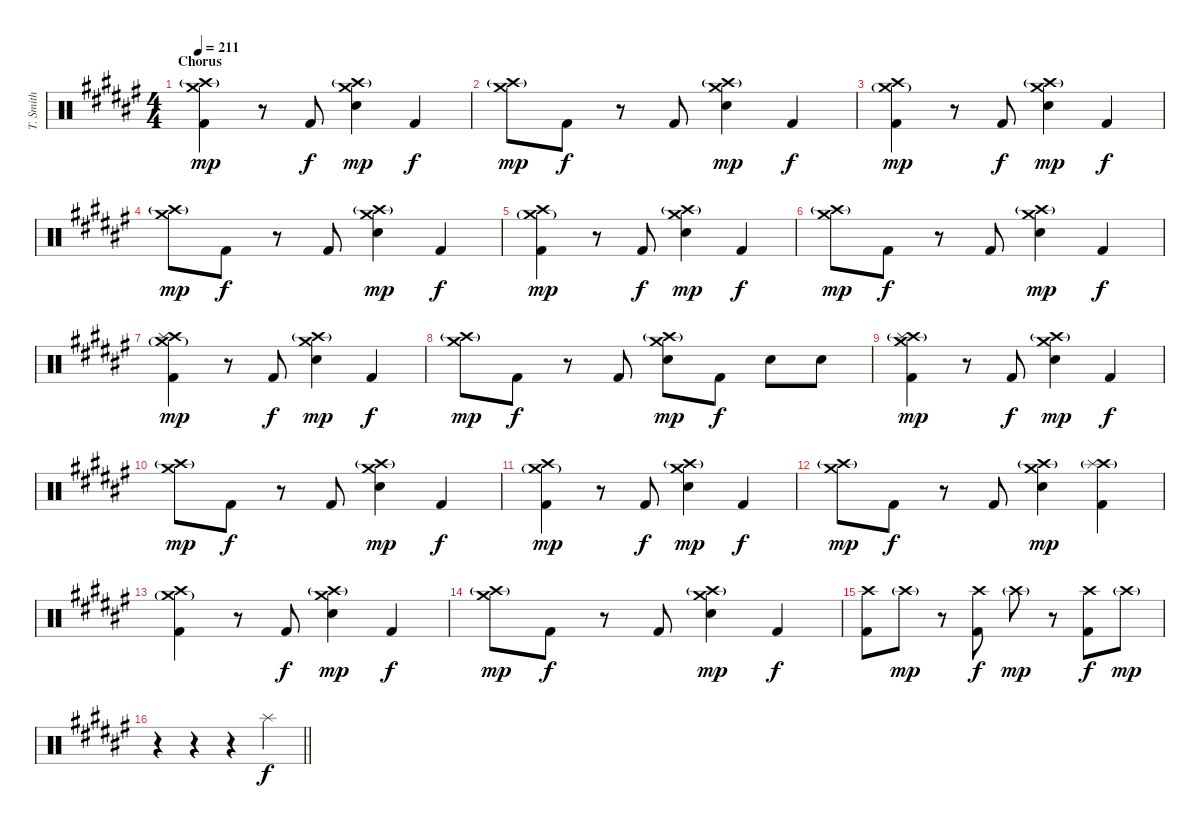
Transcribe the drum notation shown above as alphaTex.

\track ("T. Smith" "T. Smith") {instrument percussion}
\staff {score}
\articulation defaults
\ts (4 4)
\section ("" "Chorus")
\tempo 211
\clef neutral
\ks d#minor
("Crash medium (hit)" "Crash high (hit)"{g} "Kick (hit) 2").4{dy mp} r.8 "Kick (hit) 2".8{dy f} ("Crash medium (hit)" "Crash high (hit)"{g} "Electric Snare (hit)").4{dy mp} "Kick (hit) 2".4{dy f} |
("Crash medium (hit)" "Crash high (hit)"{g}).8{dy mp} "Kick (hit) 2".8{dy f} r.8 "Kick (hit) 2".8 ("Crash medium (hit)" "Crash high (hit)"{g} "Electric Snare (hit)").4{dy mp} "Kick (hit) 2".4{dy f} |
("Crash medium (hit)"{g} "Crash high (hit)" "Kick (hit) 2").4{dy mp} r.8 "Kick (hit) 2".8{dy f} ("Crash medium (hit)" "Crash high (hit)"{g} "Electric Snare (hit)").4{dy mp} "Kick (hit) 2".4{dy f} |
("Crash medium (hit)" "Crash high (hit)"{g}).8{dy mp} "Kick (hit) 2".8{dy f} r.8 "Kick (hit) 2".8 ("Crash medium (hit)" "Crash high (hit)"{g} "Electric Snare (hit)").4{dy mp} "Kick (hit) 2".4{dy f} |
("Crash medium (hit)"{g} "Crash high (hit)" "Kick (hit) 2").4{dy mp} r.8 "Kick (hit) 2".8{dy f} ("Crash medium (hit)" "Crash high (hit)"{g} "Electric Snare (hit)").4{dy mp} "Kick (hit) 2".4{dy f} |
("Crash medium (hit)" "Crash high (hit)"{g}).8{dy mp} "Kick (hit) 2".8{dy f} r.8 "Kick (hit) 2".8 ("Crash medium (hit)" "Crash high (hit)"{g} "Electric Snare (hit)").4{dy mp} "Kick (hit) 2".4{dy f} |
("Crash medium (hit)"{g} "Crash high (hit)" "Splash (hit)" "Kick (hit) 2").4{dy mp} r.8 "Kick (hit) 2".8{dy f} ("Crash medium (hit)" "Crash high (hit)"{g} "Electric Snare (hit)").4{dy mp} "Kick (hit) 2".4{dy f} |
("Crash medium (hit)" "Crash high (hit)"{g}).8{dy mp} "Kick (hit) 2".8{dy f} r.8 "Kick (hit) 2".8 ("Crash medium (hit)" "Crash high (hit)"{g} "Electric Snare (hit)").8{dy mp} "Kick (hit) 2".8{dy f} "Electric Snare (hit)".8 "Electric Snare (hit)".8 |
("Crash medium (hit)" "Crash high (hit)"{g} "Splash (hit)" "Kick (hit) 2").4{dy mp} r.8 "Kick (hit) 2".8{dy f} ("Crash medium (hit)" "Crash high (hit)"{g} "Electric Snare (hit)").4{dy mp} "Kick (hit) 2".4{dy f} |
("Crash medium (hit)" "Crash high (hit)"{g}).8{dy mp} "Kick (hit) 2".8{dy f} r.8 "Kick (hit) 2".8 ("Crash medium (hit)" "Crash high (hit)"{g} "Electric Snare (hit)").4{dy mp} "Kick (hit) 2".4{dy f} |
("Crash medium (hit)"{g} "Crash high (hit)" "Kick (hit) 2").4{dy mp} r.8 "Kick (hit) 2".8{dy f} ("Crash medium (hit)" "Crash high (hit)"{g} "Electric Snare (hit)").4{dy mp} "Kick (hit) 2".4{dy f} |
("Crash medium (hit)" "Crash high (hit)"{g}).8{dy mp} "Kick (hit) 2".8{dy f} r.8 "Kick (hit) 2".8 ("Crash medium (hit)" "Crash high (hit)"{g} "Electric Snare (hit)").4{dy mp} ("Crash high (hit)"{g} "Splash (hit)" "Kick (hit) 2").4 |
("Crash medium (hit)"{g} "Crash high (hit)" "Kick (hit) 2").4 r.8 "Kick (hit) 2".8{dy f} ("Crash medium (hit)" "Crash high (hit)"{g} "Electric Snare (hit)").4{dy mp} "Kick (hit) 2".4{dy f} |
("Crash medium (hit)" "Crash high (hit)"{g}).8{dy mp} "Kick (hit) 2".8{dy f} r.8 "Kick (hit) 2".8 ("Crash medium (hit)" "Crash high (hit)"{g} "Electric Snare (hit)").4{dy mp} "Kick (hit) 2".4{dy f} |
("Crash high (hit)" "Kick (hit) 2").8{balance 13} "Crash high (hit)"{g}.8{dy mp volume 3} r.8 ("Crash high (hit)" "Kick (hit) 2").8{dy f volume 13} "Crash high (hit)"{g}.8{dy mp volume 4} r.8 ("Crash high (hit)" "Kick (hit) 2").8{dy f volume 13} "Crash high (hit)"{g}.8{dy mp volume 4} |
\barLineRight lightlight
r.4 r.4 r.4 "Splash (hit)".4{dy f volume 11 balance 3}
